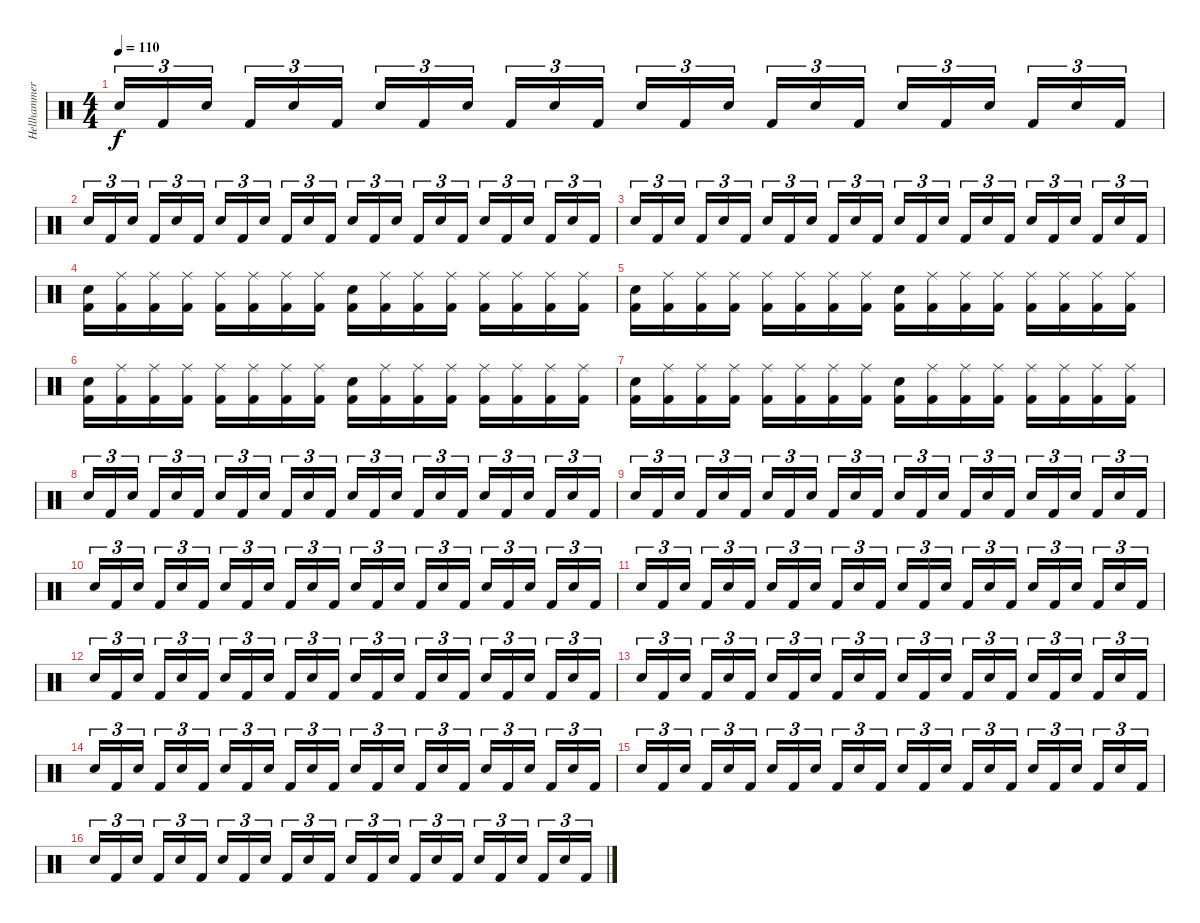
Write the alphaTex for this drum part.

\track ("Hellhammer" "Hellhammer") {instrument percussion}
\staff {score}
\articulation defaults
\ts (4 4)
\tempo 110
\clef neutral
\ks c "Electric Snare (hit)".16{tu (3 2) dy f} "Kick (hit) 2".16{tu (3 2)} "Electric Snare (hit)".16{tu (3 2)} "Kick (hit) 2".16{tu (3 2)} "Electric Snare (hit)".16{tu (3 2)} "Kick (hit) 2".16{tu (3 2)} "Electric Snare (hit)".16{tu (3 2)} "Kick (hit) 2".16{tu (3 2)} "Electric Snare (hit)".16{tu (3 2)} "Kick (hit) 2".16{tu (3 2)} "Electric Snare (hit)".16{tu (3 2)} "Kick (hit) 2".16{tu (3 2)} "Electric Snare (hit)".16{tu (3 2)} "Kick (hit) 2".16{tu (3 2)} "Electric Snare (hit)".16{tu (3 2)} "Kick (hit) 2".16{tu (3 2)} "Electric Snare (hit)".16{tu (3 2)} "Kick (hit) 2".16{tu (3 2)} "Electric Snare (hit)".16{tu (3 2)} "Kick (hit) 2".16{tu (3 2)} "Electric Snare (hit)".16{tu (3 2)} "Kick (hit) 2".16{tu (3 2)} "Electric Snare (hit)".16{tu (3 2)} "Kick (hit) 2".16{tu (3 2)}
|
"Electric Snare (hit)".16{tu (3 2)} "Kick (hit) 2".16{tu (3 2)} "Electric Snare (hit)".16{tu (3 2)} "Kick (hit) 2".16{tu (3 2)} "Electric Snare (hit)".16{tu (3 2)} "Kick (hit) 2".16{tu (3 2)} "Electric Snare (hit)".16{tu (3 2)} "Kick (hit) 2".16{tu (3 2)} "Electric Snare (hit)".16{tu (3 2)} "Kick (hit) 2".16{tu (3 2)} "Electric Snare (hit)".16{tu (3 2)} "Kick (hit) 2".16{tu (3 2)} "Electric Snare (hit)".16{tu (3 2)} "Kick (hit) 2".16{tu (3 2)} "Electric Snare (hit)".16{tu (3 2)} "Kick (hit) 2".16{tu (3 2)} "Electric Snare (hit)".16{tu (3 2)} "Kick (hit) 2".16{tu (3 2)} "Electric Snare (hit)".16{tu (3 2)} "Kick (hit) 2".16{tu (3 2)} "Electric Snare (hit)".16{tu (3 2)} "Kick (hit) 2".16{tu (3 2)} "Electric Snare (hit)".16{tu (3 2)} "Kick (hit) 2".16{tu (3 2)} |
"Electric Snare (hit)".16{tu (3 2)} "Kick (hit) 2".16{tu (3 2)} "Electric Snare (hit)".16{tu (3 2)} "Kick (hit) 2".16{tu (3 2)} "Electric Snare (hit)".16{tu (3 2)} "Kick (hit) 2".16{tu (3 2)} "Electric Snare (hit)".16{tu (3 2)} "Kick (hit) 2".16{tu (3 2)} "Electric Snare (hit)".16{tu (3 2)} "Kick (hit) 2".16{tu (3 2)} "Electric Snare (hit)".16{tu (3 2)} "Kick (hit) 2".16{tu (3 2)} "Electric Snare (hit)".16{tu (3 2)} "Kick (hit) 2".16{tu (3 2)} "Electric Snare (hit)".16{tu (3 2)} "Kick (hit) 2".16{tu (3 2)} "Electric Snare (hit)".16{tu (3 2)} "Kick (hit) 2".16{tu (3 2)} "Electric Snare (hit)".16{tu (3 2)} "Kick (hit) 2".16{tu (3 2)} "Electric Snare (hit)".16{tu (3 2)} "Kick (hit) 2".16{tu (3 2)} "Electric Snare (hit)".16{tu (3 2)} "Kick (hit) 2".16{tu (3 2)} |
("Electric Snare (hit)" "Kick (hit) 2").16 ("Ride (middle)" "Kick (hit) 2").16 ("Ride (middle)" "Kick (hit) 2").16 ("Ride (middle)" "Kick (hit) 2").16 ("Ride (middle)" "Kick (hit) 2").16 ("Ride (middle)" "Kick (hit) 2").16 ("Ride (middle)" "Kick (hit) 2").16 ("Ride (middle)" "Kick (hit) 2").16 ("Electric Snare (hit)" "Kick (hit) 2").16 ("Ride (middle)" "Kick (hit) 2").16 ("Ride (middle)" "Kick (hit) 2").16 ("Ride (middle)" "Kick (hit) 2").16 ("Ride (middle)" "Kick (hit) 2").16 ("Ride (middle)" "Kick (hit) 2").16 ("Ride (middle)" "Kick (hit) 2").16 ("Ride (middle)" "Kick (hit) 2").16 |
("Electric Snare (hit)" "Kick (hit) 2").16 ("Ride (middle)" "Kick (hit) 2").16 ("Ride (middle)" "Kick (hit) 2").16 ("Ride (middle)" "Kick (hit) 2").16 ("Ride (middle)" "Kick (hit) 2").16 ("Ride (middle)" "Kick (hit) 2").16 ("Ride (middle)" "Kick (hit) 2").16 ("Ride (middle)" "Kick (hit) 2").16 ("Electric Snare (hit)" "Kick (hit) 2").16 ("Ride (middle)" "Kick (hit) 2").16 ("Ride (middle)" "Kick (hit) 2").16 ("Ride (middle)" "Kick (hit) 2").16 ("Ride (middle)" "Kick (hit) 2").16 ("Ride (middle)" "Kick (hit) 2").16 ("Ride (middle)" "Kick (hit) 2").16 ("Ride (middle)" "Kick (hit) 2").16 |
("Electric Snare (hit)" "Kick (hit) 2").16 ("Ride (middle)" "Kick (hit) 2").16 ("Ride (middle)" "Kick (hit) 2").16 ("Ride (middle)" "Kick (hit) 2").16 ("Ride (middle)" "Kick (hit) 2").16 ("Ride (middle)" "Kick (hit) 2").16 ("Ride (middle)" "Kick (hit) 2").16 ("Ride (middle)" "Kick (hit) 2").16 ("Electric Snare (hit)" "Kick (hit) 2").16 ("Ride (middle)" "Kick (hit) 2").16 ("Ride (middle)" "Kick (hit) 2").16 ("Ride (middle)" "Kick (hit) 2").16 ("Ride (middle)" "Kick (hit) 2").16 ("Ride (middle)" "Kick (hit) 2").16 ("Ride (middle)" "Kick (hit) 2").16 ("Ride (middle)" "Kick (hit) 2").16 |
("Electric Snare (hit)" "Kick (hit) 2").16 ("Ride (middle)" "Kick (hit) 2").16 ("Ride (middle)" "Kick (hit) 2").16 ("Ride (middle)" "Kick (hit) 2").16 ("Ride (middle)" "Kick (hit) 2").16 ("Ride (middle)" "Kick (hit) 2").16 ("Ride (middle)" "Kick (hit) 2").16 ("Ride (middle)" "Kick (hit) 2").16 ("Electric Snare (hit)" "Kick (hit) 2").16 ("Ride (middle)" "Kick (hit) 2").16 ("Ride (middle)" "Kick (hit) 2").16 ("Ride (middle)" "Kick (hit) 2").16 ("Ride (middle)" "Kick (hit) 2").16 ("Ride (middle)" "Kick (hit) 2").16 ("Ride (middle)" "Kick (hit) 2").16 ("Ride (middle)" "Kick (hit) 2").16 |
"Electric Snare (hit)".16{tu (3 2)} "Kick (hit) 2".16{tu (3 2)} "Electric Snare (hit)".16{tu (3 2)} "Kick (hit) 2".16{tu (3 2)} "Electric Snare (hit)".16{tu (3 2)} "Kick (hit) 2".16{tu (3 2)} "Electric Snare (hit)".16{tu (3 2)} "Kick (hit) 2".16{tu (3 2)} "Electric Snare (hit)".16{tu (3 2)} "Kick (hit) 2".16{tu (3 2)} "Electric Snare (hit)".16{tu (3 2)} "Kick (hit) 2".16{tu (3 2)} "Electric Snare (hit)".16{tu (3 2)} "Kick (hit) 2".16{tu (3 2)} "Electric Snare (hit)".16{tu (3 2)} "Kick (hit) 2".16{tu (3 2)} "Electric Snare (hit)".16{tu (3 2)} "Kick (hit) 2".16{tu (3 2)} "Electric Snare (hit)".16{tu (3 2)} "Kick (hit) 2".16{tu (3 2)} "Electric Snare (hit)".16{tu (3 2)} "Kick (hit) 2".16{tu (3 2)} "Electric Snare (hit)".16{tu (3 2)} "Kick (hit) 2".16{tu (3 2)} |
"Electric Snare (hit)".16{tu (3 2)} "Kick (hit) 2".16{tu (3 2)} "Electric Snare (hit)".16{tu (3 2)} "Kick (hit) 2".16{tu (3 2)} "Electric Snare (hit)".16{tu (3 2)} "Kick (hit) 2".16{tu (3 2)} "Electric Snare (hit)".16{tu (3 2)} "Kick (hit) 2".16{tu (3 2)} "Electric Snare (hit)".16{tu (3 2)} "Kick (hit) 2".16{tu (3 2)} "Electric Snare (hit)".16{tu (3 2)} "Kick (hit) 2".16{tu (3 2)} "Electric Snare (hit)".16{tu (3 2)} "Kick (hit) 2".16{tu (3 2)} "Electric Snare (hit)".16{tu (3 2)} "Kick (hit) 2".16{tu (3 2)} "Electric Snare (hit)".16{tu (3 2)} "Kick (hit) 2".16{tu (3 2)} "Electric Snare (hit)".16{tu (3 2)} "Kick (hit) 2".16{tu (3 2)} "Electric Snare (hit)".16{tu (3 2)} "Kick (hit) 2".16{tu (3 2)} "Electric Snare (hit)".16{tu (3 2)} "Kick (hit) 2".16{tu (3 2)} |
"Electric Snare (hit)".16{tu (3 2)} "Kick (hit) 2".16{tu (3 2)} "Electric Snare (hit)".16{tu (3 2)} "Kick (hit) 2".16{tu (3 2)} "Electric Snare (hit)".16{tu (3 2)} "Kick (hit) 2".16{tu (3 2)} "Electric Snare (hit)".16{tu (3 2)} "Kick (hit) 2".16{tu (3 2)} "Electric Snare (hit)".16{tu (3 2)} "Kick (hit) 2".16{tu (3 2)} "Electric Snare (hit)".16{tu (3 2)} "Kick (hit) 2".16{tu (3 2)} "Electric Snare (hit)".16{tu (3 2)} "Kick (hit) 2".16{tu (3 2)} "Electric Snare (hit)".16{tu (3 2)} "Kick (hit) 2".16{tu (3 2)} "Electric Snare (hit)".16{tu (3 2)} "Kick (hit) 2".16{tu (3 2)} "Electric Snare (hit)".16{tu (3 2)} "Kick (hit) 2".16{tu (3 2)} "Electric Snare (hit)".16{tu (3 2)} "Kick (hit) 2".16{tu (3 2)} "Electric Snare (hit)".16{tu (3 2)} "Kick (hit) 2".16{tu (3 2)} |
"Electric Snare (hit)".16{tu (3 2)} "Kick (hit) 2".16{tu (3 2)} "Electric Snare (hit)".16{tu (3 2)} "Kick (hit) 2".16{tu (3 2)} "Electric Snare (hit)".16{tu (3 2)} "Kick (hit) 2".16{tu (3 2)} "Electric Snare (hit)".16{tu (3 2)} "Kick (hit) 2".16{tu (3 2)} "Electric Snare (hit)".16{tu (3 2)} "Kick (hit) 2".16{tu (3 2)} "Electric Snare (hit)".16{tu (3 2)} "Kick (hit) 2".16{tu (3 2)} "Electric Snare (hit)".16{tu (3 2)} "Kick (hit) 2".16{tu (3 2)} "Electric Snare (hit)".16{tu (3 2)} "Kick (hit) 2".16{tu (3 2)} "Electric Snare (hit)".16{tu (3 2)} "Kick (hit) 2".16{tu (3 2)} "Electric Snare (hit)".16{tu (3 2)} "Kick (hit) 2".16{tu (3 2)} "Electric Snare (hit)".16{tu (3 2)} "Kick (hit) 2".16{tu (3 2)} "Electric Snare (hit)".16{tu (3 2)} "Kick (hit) 2".16{tu (3 2)} |
"Electric Snare (hit)".16{tu (3 2)} "Kick (hit) 2".16{tu (3 2)} "Electric Snare (hit)".16{tu (3 2)} "Kick (hit) 2".16{tu (3 2)} "Electric Snare (hit)".16{tu (3 2)} "Kick (hit) 2".16{tu (3 2)} "Electric Snare (hit)".16{tu (3 2)} "Kick (hit) 2".16{tu (3 2)} "Electric Snare (hit)".16{tu (3 2)} "Kick (hit) 2".16{tu (3 2)} "Electric Snare (hit)".16{tu (3 2)} "Kick (hit) 2".16{tu (3 2)} "Electric Snare (hit)".16{tu (3 2)} "Kick (hit) 2".16{tu (3 2)} "Electric Snare (hit)".16{tu (3 2)} "Kick (hit) 2".16{tu (3 2)} "Electric Snare (hit)".16{tu (3 2)} "Kick (hit) 2".16{tu (3 2)} "Electric Snare (hit)".16{tu (3 2)} "Kick (hit) 2".16{tu (3 2)} "Electric Snare (hit)".16{tu (3 2)} "Kick (hit) 2".16{tu (3 2)} "Electric Snare (hit)".16{tu (3 2)} "Kick (hit) 2".16{tu (3 2)} |
"Electric Snare (hit)".16{tu (3 2)} "Kick (hit) 2".16{tu (3 2)} "Electric Snare (hit)".16{tu (3 2)} "Kick (hit) 2".16{tu (3 2)} "Electric Snare (hit)".16{tu (3 2)} "Kick (hit) 2".16{tu (3 2)} "Electric Snare (hit)".16{tu (3 2)} "Kick (hit) 2".16{tu (3 2)} "Electric Snare (hit)".16{tu (3 2)} "Kick (hit) 2".16{tu (3 2)} "Electric Snare (hit)".16{tu (3 2)} "Kick (hit) 2".16{tu (3 2)} "Electric Snare (hit)".16{tu (3 2)} "Kick (hit) 2".16{tu (3 2)} "Electric Snare (hit)".16{tu (3 2)} "Kick (hit) 2".16{tu (3 2)} "Electric Snare (hit)".16{tu (3 2)} "Kick (hit) 2".16{tu (3 2)} "Electric Snare (hit)".16{tu (3 2)} "Kick (hit) 2".16{tu (3 2)} "Electric Snare (hit)".16{tu (3 2)} "Kick (hit) 2".16{tu (3 2)} "Electric Snare (hit)".16{tu (3 2)} "Kick (hit) 2".16{tu (3 2)} |
"Electric Snare (hit)".16{tu (3 2)} "Kick (hit) 2".16{tu (3 2)} "Electric Snare (hit)".16{tu (3 2)} "Kick (hit) 2".16{tu (3 2)} "Electric Snare (hit)".16{tu (3 2)} "Kick (hit) 2".16{tu (3 2)} "Electric Snare (hit)".16{tu (3 2)} "Kick (hit) 2".16{tu (3 2)} "Electric Snare (hit)".16{tu (3 2)} "Kick (hit) 2".16{tu (3 2)} "Electric Snare (hit)".16{tu (3 2)} "Kick (hit) 2".16{tu (3 2)} "Electric Snare (hit)".16{tu (3 2)} "Kick (hit) 2".16{tu (3 2)} "Electric Snare (hit)".16{tu (3 2)} "Kick (hit) 2".16{tu (3 2)} "Electric Snare (hit)".16{tu (3 2)} "Kick (hit) 2".16{tu (3 2)} "Electric Snare (hit)".16{tu (3 2)} "Kick (hit) 2".16{tu (3 2)} "Electric Snare (hit)".16{tu (3 2)} "Kick (hit) 2".16{tu (3 2)} "Electric Snare (hit)".16{tu (3 2)} "Kick (hit) 2".16{tu (3 2)} |
"Electric Snare (hit)".16{tu (3 2)} "Kick (hit) 2".16{tu (3 2)} "Electric Snare (hit)".16{tu (3 2)} "Kick (hit) 2".16{tu (3 2)} "Electric Snare (hit)".16{tu (3 2)} "Kick (hit) 2".16{tu (3 2)} "Electric Snare (hit)".16{tu (3 2)} "Kick (hit) 2".16{tu (3 2)} "Electric Snare (hit)".16{tu (3 2)} "Kick (hit) 2".16{tu (3 2)} "Electric Snare (hit)".16{tu (3 2)} "Kick (hit) 2".16{tu (3 2)} "Electric Snare (hit)".16{tu (3 2)} "Kick (hit) 2".16{tu (3 2)} "Electric Snare (hit)".16{tu (3 2)} "Kick (hit) 2".16{tu (3 2)} "Electric Snare (hit)".16{tu (3 2)} "Kick (hit) 2".16{tu (3 2)} "Electric Snare (hit)".16{tu (3 2)} "Kick (hit) 2".16{tu (3 2)} "Electric Snare (hit)".16{tu (3 2)} "Kick (hit) 2".16{tu (3 2)} "Electric Snare (hit)".16{tu (3 2)} "Kick (hit) 2".16{tu (3 2)} |
"Electric Snare (hit)".16{tu (3 2)} "Kick (hit) 2".16{tu (3 2)} "Electric Snare (hit)".16{tu (3 2)} "Kick (hit) 2".16{tu (3 2)} "Electric Snare (hit)".16{tu (3 2)} "Kick (hit) 2".16{tu (3 2)} "Electric Snare (hit)".16{tu (3 2)} "Kick (hit) 2".16{tu (3 2)} "Electric Snare (hit)".16{tu (3 2)} "Kick (hit) 2".16{tu (3 2)} "Electric Snare (hit)".16{tu (3 2)} "Kick (hit) 2".16{tu (3 2)} "Electric Snare (hit)".16{tu (3 2)} "Kick (hit) 2".16{tu (3 2)} "Electric Snare (hit)".16{tu (3 2)} "Kick (hit) 2".16{tu (3 2)} "Electric Snare (hit)".16{tu (3 2)} "Kick (hit) 2".16{tu (3 2)} "Electric Snare (hit)".16{tu (3 2)} "Kick (hit) 2".16{tu (3 2)} "Electric Snare (hit)".16{tu (3 2)} "Kick (hit) 2".16{tu (3 2)} "Electric Snare (hit)".16{tu (3 2)} "Kick (hit) 2".16{tu (3 2)}
